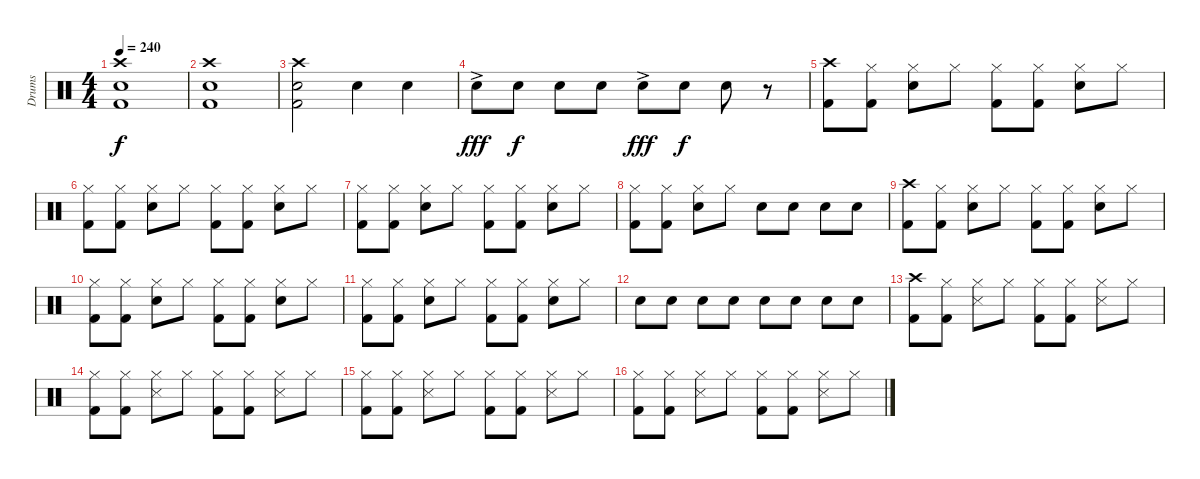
\track ("Drums" "Drums") {instrument percussion}
\staff {score}
\articulation defaults
\ts (4 4)
\tempo 240
\clef neutral
\ks c
("Crash high (hit)" "Snare (hit) 2" "Kick (hit) 2").1{dy f} |
("Crash high (hit)" "Snare (hit) 2" "Kick (hit) 2").1 |
("Crash high (hit)" "Snare (hit) 2" "Kick (hit) 2").2 "Snare (hit) 2".4 "Snare (hit) 2".4 |
"Snare (hit) 2"{ac}.8{dy fff} "Snare (hit) 2".8{dy f} "Snare (hit) 2".8 "Snare (hit) 2".8 "Snare (hit) 2"{ac}.8{dy fff} "Snare (hit) 2".8{dy f} "Snare (hit) 2".8 r.8 |
("Crash high (hit)" "Kick (hit) 2").8 ("Hi-Hat (closed)" "Kick (hit) 2").8 ("Hi-Hat (closed)" "Snare (hit) 2").8 "Hi-Hat (closed)".8 ("Hi-Hat (closed)" "Kick (hit) 2").8 ("Hi-Hat (closed)" "Kick (hit) 2").8 ("Hi-Hat (closed)" "Snare (hit) 2").8 "Hi-Hat (closed)".8 |
("Hi-Hat (closed)" "Kick (hit) 2").8 ("Hi-Hat (closed)" "Kick (hit) 2").8 ("Hi-Hat (closed)" "Snare (hit) 2").8 "Hi-Hat (closed)".8 ("Hi-Hat (closed)" "Kick (hit) 2").8 ("Hi-Hat (closed)" "Kick (hit) 2").8 ("Hi-Hat (closed)" "Snare (hit) 2").8 "Hi-Hat (closed)".8 |
("Hi-Hat (closed)" "Kick (hit) 2").8 ("Hi-Hat (closed)" "Kick (hit) 2").8 ("Hi-Hat (closed)" "Snare (hit) 2").8 "Hi-Hat (closed)".8 ("Hi-Hat (closed)" "Kick (hit) 2").8 ("Hi-Hat (closed)" "Kick (hit) 2").8 ("Hi-Hat (closed)" "Snare (hit) 2").8 "Hi-Hat (closed)".8 |
("Hi-Hat (closed)" "Kick (hit) 2").8 ("Hi-Hat (closed)" "Kick (hit) 2").8 ("Hi-Hat (closed)" "Snare (hit) 2").8 "Hi-Hat (closed)".8 "Snare (hit) 2".8 "Snare (hit) 2".8 "Snare (hit) 2".8 "Snare (hit) 2".8 |
("Crash high (hit)" "Kick (hit) 2").8 ("Hi-Hat (closed)" "Kick (hit) 2").8 ("Hi-Hat (closed)" "Snare (hit) 2").8 "Hi-Hat (closed)".8 ("Hi-Hat (closed)" "Kick (hit) 2").8 ("Hi-Hat (closed)" "Kick (hit) 2").8 ("Hi-Hat (closed)" "Snare (hit) 2").8 "Hi-Hat (closed)".8 |
("Hi-Hat (closed)" "Kick (hit) 2").8 ("Hi-Hat (closed)" "Kick (hit) 2").8 ("Hi-Hat (closed)" "Snare (hit) 2").8 "Hi-Hat (closed)".8 ("Hi-Hat (closed)" "Kick (hit) 2").8 ("Hi-Hat (closed)" "Kick (hit) 2").8 ("Hi-Hat (closed)" "Snare (hit) 2").8 "Hi-Hat (closed)".8 |
("Hi-Hat (closed)" "Kick (hit) 2").8 ("Hi-Hat (closed)" "Kick (hit) 2").8 ("Hi-Hat (closed)" "Snare (hit) 2").8 "Hi-Hat (closed)".8 ("Hi-Hat (closed)" "Kick (hit) 2").8 ("Hi-Hat (closed)" "Kick (hit) 2").8 ("Hi-Hat (closed)" "Snare (hit) 2").8 "Hi-Hat (closed)".8 |
"Snare (hit) 2".8 "Snare (hit) 2".8 "Snare (hit) 2".8 "Snare (hit) 2".8 "Snare (hit) 2".8 "Snare (hit) 2".8 "Snare (hit) 2".8 "Snare (hit) 2".8 |
("Crash high (hit)" "Kick (hit) 2").8 ("Hi-Hat (closed)" "Kick (hit) 2").8 ("Hi-Hat (closed)" "Snare (side stick) 3").8 "Hi-Hat (closed)".8 ("Hi-Hat (closed)" "Kick (hit) 2").8 ("Hi-Hat (closed)" "Kick (hit) 2").8 ("Hi-Hat (closed)" "Snare (side stick) 3").8 "Hi-Hat (closed)".8 |
("Hi-Hat (closed)" "Kick (hit) 2").8 ("Hi-Hat (closed)" "Kick (hit) 2").8 ("Hi-Hat (closed)" "Snare (side stick) 3").8 "Hi-Hat (closed)".8 ("Hi-Hat (closed)" "Kick (hit) 2").8 ("Hi-Hat (closed)" "Kick (hit) 2").8 ("Hi-Hat (closed)" "Snare (side stick) 3").8 "Hi-Hat (closed)".8 |
("Hi-Hat (closed)" "Kick (hit) 2").8 ("Hi-Hat (closed)" "Kick (hit) 2").8 ("Hi-Hat (closed)" "Snare (side stick) 3").8 "Hi-Hat (closed)".8 ("Hi-Hat (closed)" "Kick (hit) 2").8 ("Hi-Hat (closed)" "Kick (hit) 2").8 ("Hi-Hat (closed)" "Snare (side stick) 3").8 "Hi-Hat (closed)".8 |
("Hi-Hat (closed)" "Kick (hit) 2").8 ("Hi-Hat (closed)" "Kick (hit) 2").8 ("Hi-Hat (closed)" "Snare (side stick) 3").8 "Hi-Hat (closed)".8 ("Hi-Hat (closed)" "Kick (hit) 2").8 ("Hi-Hat (closed)" "Kick (hit) 2").8 ("Hi-Hat (closed)" "Snare (side stick) 3").8 "Hi-Hat (closed)".8
